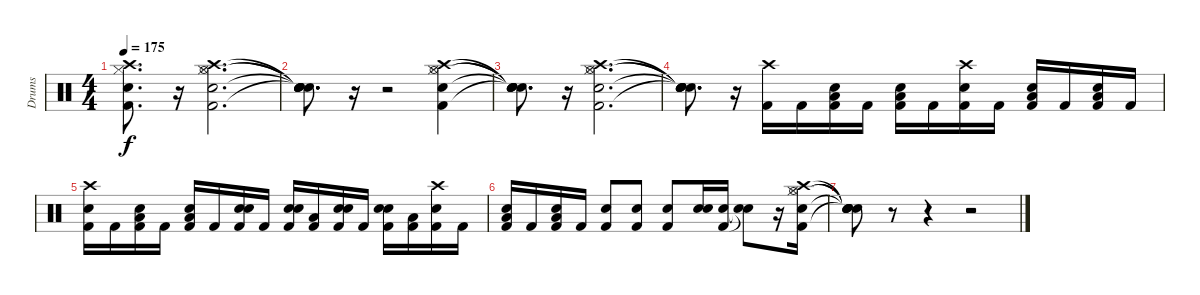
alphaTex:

\track ("Drums" "Drums") {instrument percussion}
\staff {score}
\articulation defaults
\ts (4 4)
\tempo 175
\clef neutral
\ks c
("Snare (hit)" "Kick (hit) 2" "Hi-Hat (closed)" "Crash high (hit)").8{d dy f} r.16 ("Kick (hit) 2" "Snare (hit) 2" "Hi-Hat (closed)" "Hi-Hat (open)" "Crash high (hit)").2{d} |
("Snare (hit)"{t} "Snare (hit)"{t} "Snare (hit)"{t} "Snare (hit)"{t} "Snare (hit)"{t}).8{d} r.16 r.2 ("Kick (hit) 2" "Snare (hit) 2" "Hi-Hat (closed)" "Hi-Hat (open)" "Crash high (hit)").4 |
("Snare (hit)"{t} "Snare (hit)"{t} "Snare (hit)"{t} "Snare (hit)"{t} "Snare (hit)"{t}).8{d} r.16 ("Kick (hit) 2" "Snare (hit) 2" "Hi-Hat (closed)" "Hi-Hat (open)" "Crash high (hit)").2{d} |
("Snare (hit)"{t} "Snare (hit)"{t} "Snare (hit)"{t} "Snare (hit)"{t} "Snare (hit)"{t}).8{d} r.16 ("Kick (hit) 2" "Crash high (hit)").16 "Kick (hit) 2".16 ("Snare (hit)" "Kick (hit) 2" "Low Tom (hit)").16 "Kick (hit) 2".16 ("Snare (hit)" "Kick (hit) 2" "Low Floor Tom (hit)").16 "Kick (hit) 2".16 ("Snare (hit)" "Kick (hit) 2" "Crash high (hit)").16 "Kick (hit) 2".16 ("Snare (hit)" "Kick (hit) 2" "Low Tom (hit)").16 "Kick (hit) 2".16 ("Snare (hit)" "Kick (hit) 2" "Low Floor Tom (hit)").16 "Kick (hit) 2".16 |
("Snare (hit)" "Kick (hit) 2" "Crash high (hit)").16 "Kick (hit) 2".16 ("Snare (hit)" "Kick (hit) 2" "Low Tom (hit)").16 "Kick (hit) 2".16 ("Snare (hit)" "Kick (hit) 2" "Low Floor Tom (hit)").16 "Kick (hit) 2".16 ("Snare (hit)" "Kick (hit) 2" "Snare (hit) 2").16 "Kick (hit) 2".16 ("Snare (hit)" "Kick (hit) 2" "Snare (hit) 2").16 ("Kick (hit) 2" "Low Floor Tom (hit)").16 ("Snare (hit)" "Kick (hit) 2" "Snare (hit) 2").16 "Kick (hit) 2".16 ("Snare (hit)" "Kick (hit) 2" "Snare (hit) 2").16 ("Kick (hit) 2" "Low Floor Tom (hit)").16 ("Snare (hit)" "Kick (hit) 2" "Crash high (hit)").16 "Kick (hit) 2".16 |
("Snare (hit)" "Kick (hit) 2" "Low Tom (hit)").16 "Kick (hit) 2".16 ("Snare (hit)" "Kick (hit) 2" "Low Floor Tom (hit)").16 "Kick (hit) 2".16 ("Snare (hit)" "Kick (hit) 2").8 ("Snare (hit)" "Kick (hit) 2").8 ("Snare (hit)" "Kick (hit) 2").8 ("Snare (hit)" "Snare (hit) 2").16 ("Snare (hit)" "Kick (hit) 2").16 ("Snare (hit)"{t} "Snare (hit)"{t}).8 r.16 ("Kick (hit) 2" "Snare (hit) 2" "Hi-Hat (closed)" "Hi-Hat (open)" "Crash high (hit)").16 |
("Snare (hit)"{t} "Snare (hit)"{t} "Snare (hit)"{t} "Snare (hit)"{t} "Snare (hit)"{t}).8 r.8 r.4 r.2
